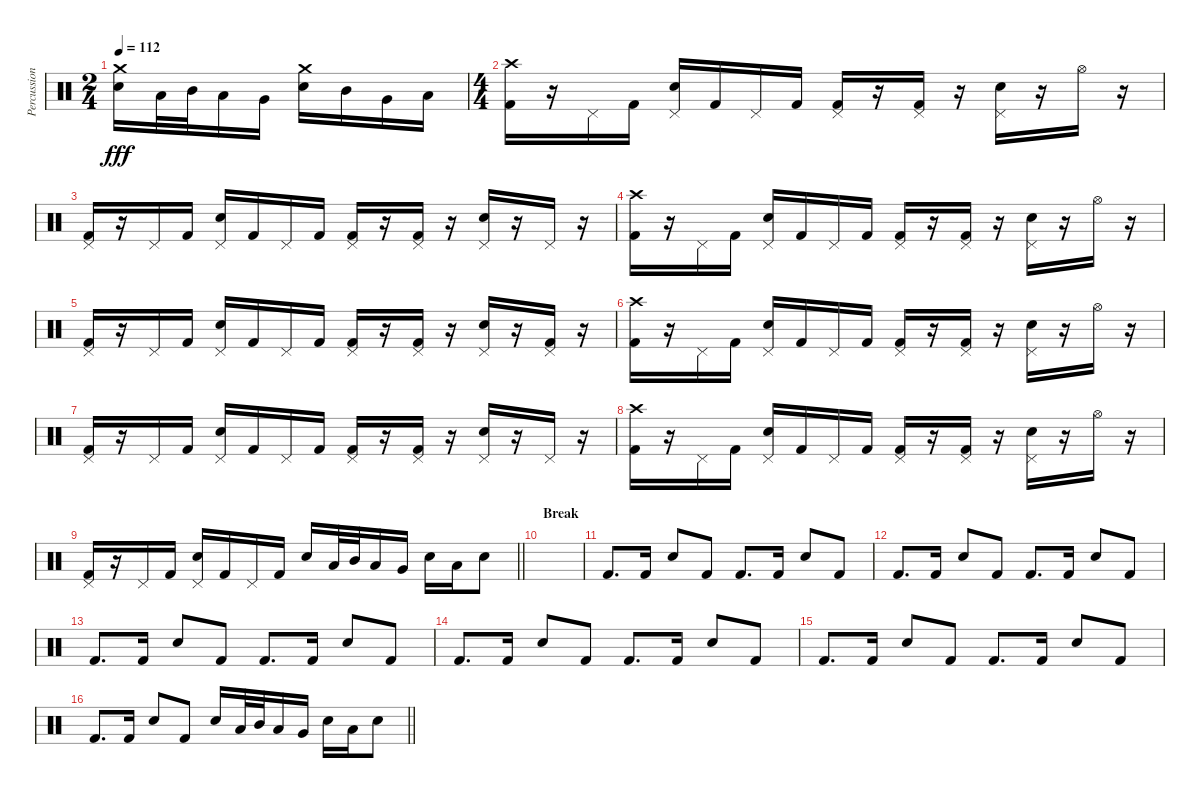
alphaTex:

\track ("Percussion" "Percussion") {instrument percussion}
\staff {score}
\articulation defaults
\ts (2 4)
\tempo 112
\clef neutral
\ks c
("Crash medium (hit)" "Electric Snare (hit)").16{dy fff} "Low Tom (hit)".32 "Mid Tom (hit)".32 "Low Tom (hit)".16 "Very Low Tom (hit)".16 ("Crash medium (hit)" "Electric Snare (hit)").16 "Mid Tom (hit)".16 "Very Low Tom (hit)".16 "Low Floor Tom (hit)".16 |
\ts (4 4)
("Crash high (hit)" "Kick (hit) 2").16 r.16 "Pedal Hi-Hat (hit)".16 "Kick (hit) 2".16 ("Pedal Hi-Hat (hit)" "Electric Snare (hit)").16 "Kick (hit) 2".16 "Pedal Hi-Hat (hit)".16 "Kick (hit) 2".16 ("Pedal Hi-Hat (hit)" "Kick (hit) 2").16 r.16 ("Pedal Hi-Hat (hit)" "Kick (hit) 2").16 r.16 ("Pedal Hi-Hat (hit)" "Electric Snare (hit)").16 r.16 "Hi-Hat (open)".16 r.16 |
("Pedal Hi-Hat (hit)" "Kick (hit) 2").16 r.16 "Pedal Hi-Hat (hit)".16 "Kick (hit) 2".16 ("Pedal Hi-Hat (hit)" "Electric Snare (hit)").16 "Kick (hit) 2".16 "Pedal Hi-Hat (hit)".16 "Kick (hit) 2".16 ("Pedal Hi-Hat (hit)" "Kick (hit) 2").16 r.16 ("Pedal Hi-Hat (hit)" "Kick (hit) 2").16 r.16 ("Pedal Hi-Hat (hit)" "Electric Snare (hit)").16 r.16 "Pedal Hi-Hat (hit)".16 r.16 |
("Crash high (hit)" "Kick (hit) 2").16 r.16 "Pedal Hi-Hat (hit)".16 "Kick (hit) 2".16 ("Pedal Hi-Hat (hit)" "Electric Snare (hit)").16 "Kick (hit) 2".16 "Pedal Hi-Hat (hit)".16 "Kick (hit) 2".16 ("Pedal Hi-Hat (hit)" "Kick (hit) 2").16 r.16 ("Pedal Hi-Hat (hit)" "Kick (hit) 2").16 r.16 ("Pedal Hi-Hat (hit)" "Electric Snare (hit)").16 r.16 "Hi-Hat (open)".16 r.16 |
("Pedal Hi-Hat (hit)" "Kick (hit) 2").16 r.16 "Pedal Hi-Hat (hit)".16 "Kick (hit) 2".16 ("Pedal Hi-Hat (hit)" "Electric Snare (hit)").16 "Kick (hit) 2".16 "Pedal Hi-Hat (hit)".16 "Kick (hit) 2".16 ("Pedal Hi-Hat (hit)" "Kick (hit) 2").16 r.16 ("Pedal Hi-Hat (hit)" "Kick (hit) 2").16 r.16 ("Pedal Hi-Hat (hit)" "Electric Snare (hit)").16 r.16 ("Pedal Hi-Hat (hit)" "Kick (hit) 2").16 r.16 |
("Crash high (hit)" "Kick (hit) 2").16 r.16 "Pedal Hi-Hat (hit)".16 "Kick (hit) 2".16 ("Pedal Hi-Hat (hit)" "Electric Snare (hit)").16 "Kick (hit) 2".16 "Pedal Hi-Hat (hit)".16 "Kick (hit) 2".16 ("Pedal Hi-Hat (hit)" "Kick (hit) 2").16 r.16 ("Pedal Hi-Hat (hit)" "Kick (hit) 2").16 r.16 ("Pedal Hi-Hat (hit)" "Electric Snare (hit)").16 r.16 "Hi-Hat (open)".16 r.16 |
("Pedal Hi-Hat (hit)" "Kick (hit) 2").16 r.16 "Pedal Hi-Hat (hit)".16 "Kick (hit) 2".16 ("Pedal Hi-Hat (hit)" "Electric Snare (hit)").16 "Kick (hit) 2".16 "Pedal Hi-Hat (hit)".16 "Kick (hit) 2".16 ("Pedal Hi-Hat (hit)" "Kick (hit) 2").16 r.16 ("Pedal Hi-Hat (hit)" "Kick (hit) 2").16 r.16 ("Pedal Hi-Hat (hit)" "Electric Snare (hit)").16 r.16 "Pedal Hi-Hat (hit)".16 r.16 |
("Crash high (hit)" "Kick (hit) 2").16 r.16 "Pedal Hi-Hat (hit)".16 "Kick (hit) 2".16 ("Pedal Hi-Hat (hit)" "Electric Snare (hit)").16 "Kick (hit) 2".16 "Pedal Hi-Hat (hit)".16 "Kick (hit) 2".16 ("Pedal Hi-Hat (hit)" "Kick (hit) 2").16 r.16 ("Pedal Hi-Hat (hit)" "Kick (hit) 2").16 r.16 ("Pedal Hi-Hat (hit)" "Electric Snare (hit)").16 r.16 "Hi-Hat (open)".16 r.16 |
\barLineRight lightlight
("Pedal Hi-Hat (hit)" "Kick (hit) 2").16 r.16 "Pedal Hi-Hat (hit)".16 "Kick (hit) 2".16 ("Pedal Hi-Hat (hit)" "Electric Snare (hit)").16 "Kick (hit) 2".16 "Pedal Hi-Hat (hit)".16 "Kick (hit) 2".16 "Snare (hit) 2".16 "Low Tom (hit)".32 "Mid Tom (hit)".32 "Low Tom (hit)".16 "Very Low Tom (hit)".16 "Snare (hit) 2".16 "Low Tom (hit)".16 "Snare (hit) 2".8 |
\section ("" "Break")
|
"Kick (hit) 2".8{d} "Kick (hit) 2".16 "Electric Snare (hit)".8 "Kick (hit) 2".8 "Kick (hit) 2".8{d} "Kick (hit) 2".16 "Electric Snare (hit)".8 "Kick (hit) 2".8 |
"Kick (hit) 2".8{d} "Kick (hit) 2".16 "Electric Snare (hit)".8 "Kick (hit) 2".8 "Kick (hit) 2".8{d} "Kick (hit) 2".16 "Electric Snare (hit)".8 "Kick (hit) 2".8 |
"Kick (hit) 2".8{d} "Kick (hit) 2".16 "Electric Snare (hit)".8 "Kick (hit) 2".8 "Kick (hit) 2".8{d} "Kick (hit) 2".16 "Electric Snare (hit)".8 "Kick (hit) 2".8 |
"Kick (hit) 2".8{d} "Kick (hit) 2".16 "Electric Snare (hit)".8 "Kick (hit) 2".8 "Kick (hit) 2".8{d} "Kick (hit) 2".16 "Electric Snare (hit)".8 "Kick (hit) 2".8 |
"Kick (hit) 2".8{d} "Kick (hit) 2".16 "Electric Snare (hit)".8 "Kick (hit) 2".8 "Kick (hit) 2".8{d} "Kick (hit) 2".16 "Electric Snare (hit)".8 "Kick (hit) 2".8 |
\barLineRight lightlight "Kick (hit) 2".8{d} "Kick (hit) 2".16 "Electric Snare (hit)".8 "Kick (hit) 2".8 "Snare (hit) 2".16 "Low Tom (hit)".32 "Mid Tom (hit)".32 "Low Tom (hit)".16 "Very Low Tom (hit)".16 "Snare (hit) 2".16 "Low Tom (hit)".16 "Snare (hit) 2".8
